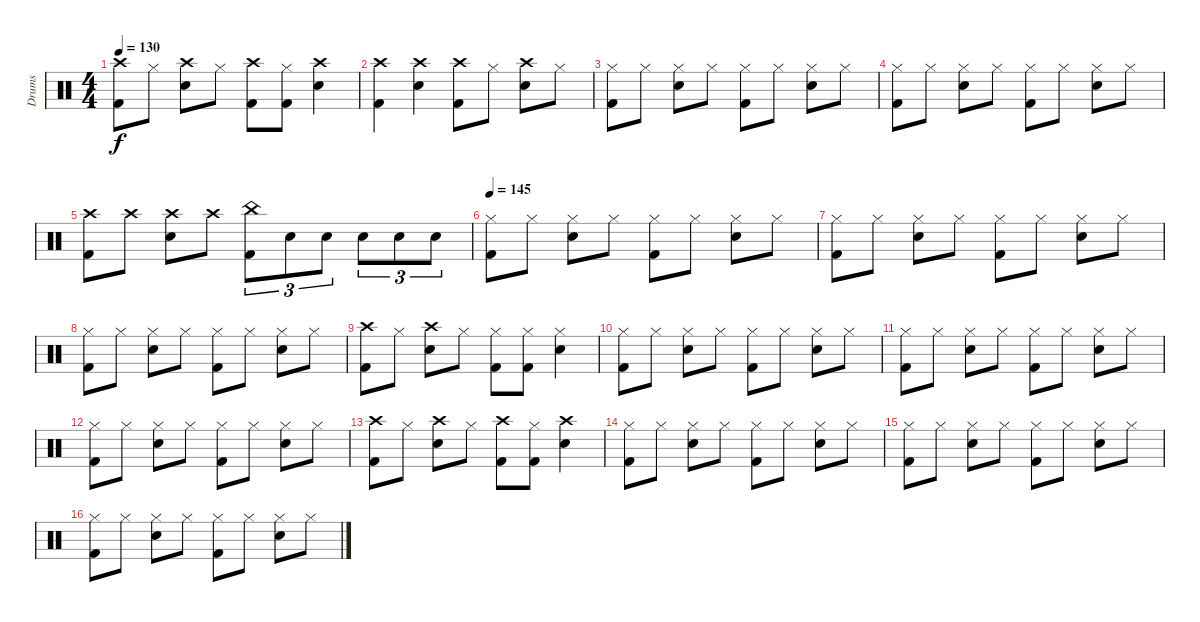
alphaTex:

\track ("Drums" "Drums") {instrument percussion}
\staff {score}
\articulation defaults
\ts (4 4)
\tempo 130
\clef neutral
\ks c
("Crash high (hit)" "Kick (hit) 2").8{dy f} "Hi-Hat (closed)".8 ("Crash high (hit)" "Electric Snare (hit)").8 "Hi-Hat (closed)".8 ("Crash high (hit)" "Kick (hit) 2").8 ("Hi-Hat (closed)" "Kick (hit) 2").8 ("Crash high (hit)" "Electric Snare (hit)").4 |
("Crash high (hit)" "Kick (hit) 2").4 ("Crash high (hit)" "Electric Snare (hit)").4 ("Crash high (hit)" "Kick (hit) 2").8 "Hi-Hat (closed)".8 ("Crash high (hit)" "Electric Snare (hit)").8 "Hi-Hat (closed)".8 |
("Hi-Hat (closed)" "Kick (hit) 2").8 "Hi-Hat (closed)".8 ("Hi-Hat (closed)" "Electric Snare (hit)").8 "Hi-Hat (closed)".8 ("Hi-Hat (closed)" "Kick (hit) 2").8 "Hi-Hat (closed)".8 ("Hi-Hat (closed)" "Electric Snare (hit)").8 "Hi-Hat (closed)".8 |
("Hi-Hat (closed)" "Kick (hit) 2").8 "Hi-Hat (closed)".8 ("Hi-Hat (closed)" "Electric Snare (hit)").8 "Hi-Hat (closed)".8 ("Hi-Hat (closed)" "Kick (hit) 2").8 "Hi-Hat (closed)".8 ("Hi-Hat (closed)" "Electric Snare (hit)").8 "Hi-Hat (closed)".8 |
("Crash high (hit)" "Kick (hit) 2").8 "Crash high (hit)".8 ("Crash high (hit)" "Electric Snare (hit)").8 "Crash high (hit)".8 ("China (hit)" "Kick (hit) 2").8{tu (3 2)} "Electric Snare (hit)".8{tu (3 2)} "Electric Snare (hit)".8{tu (3 2)} "Electric Snare (hit)".8{tu (3 2)} "Electric Snare (hit)".8{tu (3 2)} "Electric Snare (hit)".8{tu (3 2)} |
\tempo 145
("Hi-Hat (closed)" "Kick (hit) 2").8 "Hi-Hat (closed)".8 ("Hi-Hat (closed)" "Electric Snare (hit)").8 "Hi-Hat (closed)".8 ("Hi-Hat (closed)" "Kick (hit) 2").8 "Hi-Hat (closed)".8 ("Hi-Hat (closed)" "Electric Snare (hit)").8 "Hi-Hat (closed)".8 |
("Hi-Hat (closed)" "Kick (hit) 2").8 "Hi-Hat (closed)".8 ("Hi-Hat (closed)" "Electric Snare (hit)").8 "Hi-Hat (closed)".8 ("Hi-Hat (closed)" "Kick (hit) 2").8 "Hi-Hat (closed)".8 ("Hi-Hat (closed)" "Electric Snare (hit)").8 "Hi-Hat (closed)".8 |
("Hi-Hat (closed)" "Kick (hit) 2").8 "Hi-Hat (closed)".8 ("Hi-Hat (closed)" "Electric Snare (hit)").8 "Hi-Hat (closed)".8 ("Hi-Hat (closed)" "Kick (hit) 2").8 "Hi-Hat (closed)".8 ("Hi-Hat (closed)" "Electric Snare (hit)").8 "Hi-Hat (closed)".8 |
("Crash high (hit)" "Kick (hit) 2").8 "Hi-Hat (closed)".8 ("Crash high (hit)" "Electric Snare (hit)").8 "Hi-Hat (closed)".8 ("Hi-Hat (closed)" "Kick (hit) 2").8 ("Hi-Hat (closed)" "Kick (hit) 2").8 ("Hi-Hat (closed)" "Electric Snare (hit)").4 |
("Hi-Hat (closed)" "Kick (hit) 2").8 "Hi-Hat (closed)".8 ("Hi-Hat (closed)" "Electric Snare (hit)").8 "Hi-Hat (closed)".8 ("Hi-Hat (closed)" "Kick (hit) 2").8 "Hi-Hat (closed)".8 ("Hi-Hat (closed)" "Electric Snare (hit)").8 "Hi-Hat (closed)".8 |
("Hi-Hat (closed)" "Kick (hit) 2").8 "Hi-Hat (closed)".8 ("Hi-Hat (closed)" "Electric Snare (hit)").8 "Hi-Hat (closed)".8 ("Hi-Hat (closed)" "Kick (hit) 2").8 "Hi-Hat (closed)".8 ("Hi-Hat (closed)" "Electric Snare (hit)").8 "Hi-Hat (closed)".8 |
("Hi-Hat (closed)" "Kick (hit) 2").8 "Hi-Hat (closed)".8 ("Hi-Hat (closed)" "Electric Snare (hit)").8 "Hi-Hat (closed)".8 ("Hi-Hat (closed)" "Kick (hit) 2").8 "Hi-Hat (closed)".8 ("Hi-Hat (closed)" "Electric Snare (hit)").8 "Hi-Hat (closed)".8 |
("Crash high (hit)" "Kick (hit) 2").8 "Hi-Hat (closed)".8 ("Crash high (hit)" "Electric Snare (hit)").8 "Hi-Hat (closed)".8 ("Crash high (hit)" "Kick (hit) 2").8 ("Hi-Hat (closed)" "Kick (hit) 2").8 ("Crash high (hit)" "Electric Snare (hit)").4 |
("Hi-Hat (closed)" "Kick (hit) 2").8 "Hi-Hat (closed)".8 ("Hi-Hat (closed)" "Electric Snare (hit)").8 "Hi-Hat (closed)".8 ("Hi-Hat (closed)" "Kick (hit) 2").8 "Hi-Hat (closed)".8 ("Hi-Hat (closed)" "Electric Snare (hit)").8 "Hi-Hat (closed)".8 |
("Hi-Hat (closed)" "Kick (hit) 2").8 "Hi-Hat (closed)".8 ("Hi-Hat (closed)" "Electric Snare (hit)").8 "Hi-Hat (closed)".8 ("Hi-Hat (closed)" "Kick (hit) 2").8 "Hi-Hat (closed)".8 ("Hi-Hat (closed)" "Electric Snare (hit)").8 "Hi-Hat (closed)".8 |
("Hi-Hat (closed)" "Kick (hit) 2").8 "Hi-Hat (closed)".8 ("Hi-Hat (closed)" "Electric Snare (hit)").8 "Hi-Hat (closed)".8 ("Hi-Hat (closed)" "Kick (hit) 2").8 "Hi-Hat (closed)".8 ("Hi-Hat (closed)" "Electric Snare (hit)").8 "Hi-Hat (closed)".8
